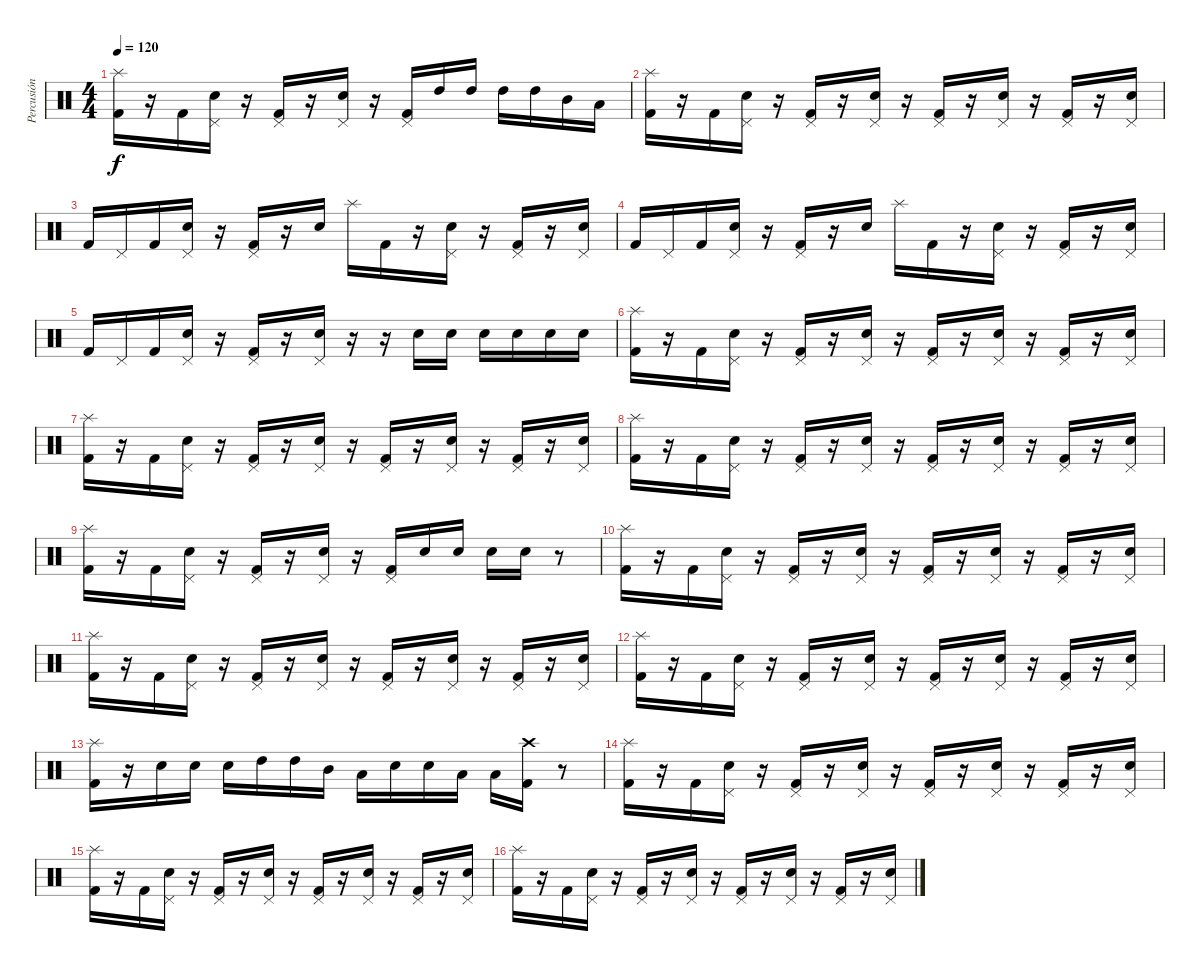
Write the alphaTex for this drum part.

\track ("Percusión" "Percusión") {instrument percussion}
\staff {score}
\articulation defaults
\ts (4 4)
\tempo 120
\clef neutral
\ks c
("Splash (hit)" "Kick (hit) 2").16{dy f} r.16 "Kick (hit) 2".16 ("Pedal Hi-Hat (hit)" "Snare (hit) 2").16 r.16 ("Pedal Hi-Hat (hit)" "Kick (hit) 2").16 r.16 ("Pedal Hi-Hat (hit)" "Snare (hit) 2").16 r.16 ("Pedal Hi-Hat (hit)" "Kick (hit) 2").16 "High Tom (hit)".16 "High Tom (hit)".16 "High Tom (hit)".16 "High Tom (hit)".16 "Mid Tom (hit)".16 "Low Tom (hit)".16 |
("Splash (hit)" "Kick (hit) 2").16 r.16 "Kick (hit) 2".16 ("Pedal Hi-Hat (hit)" "Snare (hit) 2").16 r.16 ("Pedal Hi-Hat (hit)" "Kick (hit) 2").16 r.16 ("Pedal Hi-Hat (hit)" "Snare (hit) 2").16 r.16 ("Pedal Hi-Hat (hit)" "Kick (hit) 2").16 r.16 ("Pedal Hi-Hat (hit)" "Snare (hit) 2").16 r.16 ("Pedal Hi-Hat (hit)" "Kick (hit) 2").16 r.16 ("Pedal Hi-Hat (hit)" "Snare (hit) 2").16 |
"Kick (hit) 2".16 "Pedal Hi-Hat (hit)".16 "Kick (hit) 2".16 ("Pedal Hi-Hat (hit)" "Snare (hit) 2").16 r.16 ("Pedal Hi-Hat (hit)" "Kick (hit) 2").16 r.16 "Snare (hit) 2".16 "Splash (hit)".16 "Kick (hit) 2".16 r.16 ("Pedal Hi-Hat (hit)" "Snare (hit) 2").16 r.16 ("Pedal Hi-Hat (hit)" "Kick (hit) 2").16 r.16 ("Pedal Hi-Hat (hit)" "Snare (hit) 2").16 |
"Kick (hit) 2".16 "Pedal Hi-Hat (hit)".16 "Kick (hit) 2".16 ("Pedal Hi-Hat (hit)" "Snare (hit) 2").16 r.16 ("Pedal Hi-Hat (hit)" "Kick (hit) 2").16 r.16 "Snare (hit) 2".16 "Splash (hit)".16 "Kick (hit) 2".16 r.16 ("Pedal Hi-Hat (hit)" "Snare (hit) 2").16 r.16 ("Pedal Hi-Hat (hit)" "Kick (hit) 2").16 r.16 ("Pedal Hi-Hat (hit)" "Snare (hit) 2").16 |
"Kick (hit) 2".16 "Pedal Hi-Hat (hit)".16 "Kick (hit) 2".16 ("Pedal Hi-Hat (hit)" "Snare (hit) 2").16 r.16 ("Pedal Hi-Hat (hit)" "Kick (hit) 2").16 r.16 ("Pedal Hi-Hat (hit)" "Snare (hit) 2").16 r.16 r.16 "Snare (hit) 2".16 "Snare (hit) 2".16 "Snare (hit) 2".16 "Snare (hit) 2".16 "Snare (hit) 2".16 "Snare (hit) 2".16 |
("Splash (hit)" "Kick (hit) 2").16 r.16 "Kick (hit) 2".16 ("Pedal Hi-Hat (hit)" "Snare (hit) 2").16 r.16 ("Pedal Hi-Hat (hit)" "Kick (hit) 2").16 r.16 ("Pedal Hi-Hat (hit)" "Snare (hit) 2").16 r.16 ("Pedal Hi-Hat (hit)" "Kick (hit) 2").16 r.16 ("Pedal Hi-Hat (hit)" "Snare (hit) 2").16 r.16 ("Pedal Hi-Hat (hit)" "Kick (hit) 2").16 r.16 ("Pedal Hi-Hat (hit)" "Snare (hit) 2").16 |
("Splash (hit)" "Kick (hit) 2").16 r.16 "Kick (hit) 2".16 ("Pedal Hi-Hat (hit)" "Snare (hit) 2").16 r.16 ("Pedal Hi-Hat (hit)" "Kick (hit) 2").16 r.16 ("Pedal Hi-Hat (hit)" "Snare (hit) 2").16 r.16 ("Pedal Hi-Hat (hit)" "Kick (hit) 2").16 r.16 ("Pedal Hi-Hat (hit)" "Snare (hit) 2").16 r.16 ("Pedal Hi-Hat (hit)" "Kick (hit) 2").16 r.16 ("Pedal Hi-Hat (hit)" "Snare (hit) 2").16 |
("Splash (hit)" "Kick (hit) 2").16 r.16 "Kick (hit) 2".16 ("Pedal Hi-Hat (hit)" "Snare (hit) 2").16 r.16 ("Pedal Hi-Hat (hit)" "Kick (hit) 2").16 r.16 ("Pedal Hi-Hat (hit)" "Snare (hit) 2").16 r.16 ("Pedal Hi-Hat (hit)" "Kick (hit) 2").16 r.16 ("Pedal Hi-Hat (hit)" "Snare (hit) 2").16 r.16 ("Pedal Hi-Hat (hit)" "Kick (hit) 2").16 r.16 ("Pedal Hi-Hat (hit)" "Snare (hit) 2").16 |
("Splash (hit)" "Kick (hit) 2").16 r.16 "Kick (hit) 2".16 ("Pedal Hi-Hat (hit)" "Snare (hit) 2").16 r.16 ("Pedal Hi-Hat (hit)" "Kick (hit) 2").16 r.16 ("Pedal Hi-Hat (hit)" "Snare (hit) 2").16 r.16 ("Pedal Hi-Hat (hit)" "Kick (hit) 2").16 "Snare (hit) 2".16 "Snare (hit) 2".16 "Snare (hit) 2".16 "Snare (hit) 2".16 r.8 |
("Splash (hit)" "Kick (hit) 2").16 r.16 "Kick (hit) 2".16 ("Pedal Hi-Hat (hit)" "Snare (hit) 2").16 r.16 ("Pedal Hi-Hat (hit)" "Kick (hit) 2").16 r.16 ("Pedal Hi-Hat (hit)" "Snare (hit) 2").16 r.16 ("Pedal Hi-Hat (hit)" "Kick (hit) 2").16 r.16 ("Pedal Hi-Hat (hit)" "Snare (hit) 2").16 r.16 ("Pedal Hi-Hat (hit)" "Kick (hit) 2").16 r.16 ("Pedal Hi-Hat (hit)" "Snare (hit) 2").16 |
("Splash (hit)" "Kick (hit) 2").16 r.16 "Kick (hit) 2".16 ("Pedal Hi-Hat (hit)" "Snare (hit) 2").16 r.16 ("Pedal Hi-Hat (hit)" "Kick (hit) 2").16 r.16 ("Pedal Hi-Hat (hit)" "Snare (hit) 2").16 r.16 ("Pedal Hi-Hat (hit)" "Kick (hit) 2").16 r.16 ("Pedal Hi-Hat (hit)" "Snare (hit) 2").16 r.16 ("Pedal Hi-Hat (hit)" "Kick (hit) 2").16 r.16 ("Pedal Hi-Hat (hit)" "Snare (hit) 2").16 |
("Splash (hit)" "Kick (hit) 2").16 r.16 "Kick (hit) 2".16 ("Pedal Hi-Hat (hit)" "Snare (hit) 2").16 r.16 ("Pedal Hi-Hat (hit)" "Kick (hit) 2").16 r.16 ("Pedal Hi-Hat (hit)" "Snare (hit) 2").16 r.16 ("Pedal Hi-Hat (hit)" "Kick (hit) 2").16 r.16 ("Pedal Hi-Hat (hit)" "Snare (hit) 2").16 r.16 ("Pedal Hi-Hat (hit)" "Kick (hit) 2").16 r.16 ("Pedal Hi-Hat (hit)" "Snare (hit) 2").16 |
("Splash (hit)" "Kick (hit) 2").16 r.16 "Snare (hit) 2".16 "Snare (hit) 2".16 "Snare (hit) 2".16 "High Tom (hit)".16 "High Tom (hit)".16 "Mid Tom (hit)".16 "Low Tom (hit)".16 "Snare (hit) 2".16 "Snare (hit) 2".16 "Low Tom (hit)".16 "Low Tom (hit)".16 ("Crash high (hit)" "Kick (hit) 2").16 r.8 |
("Splash (hit)" "Kick (hit) 2").16 r.16 "Kick (hit) 2".16 ("Pedal Hi-Hat (hit)" "Snare (hit) 2").16 r.16 ("Pedal Hi-Hat (hit)" "Kick (hit) 2").16 r.16 ("Pedal Hi-Hat (hit)" "Snare (hit) 2").16 r.16 ("Pedal Hi-Hat (hit)" "Kick (hit) 2").16 r.16 ("Pedal Hi-Hat (hit)" "Snare (hit) 2").16 r.16 ("Pedal Hi-Hat (hit)" "Kick (hit) 2").16 r.16 ("Pedal Hi-Hat (hit)" "Snare (hit) 2").16 |
("Splash (hit)" "Kick (hit) 2").16 r.16 "Kick (hit) 2".16 ("Pedal Hi-Hat (hit)" "Snare (hit) 2").16 r.16 ("Pedal Hi-Hat (hit)" "Kick (hit) 2").16 r.16 ("Pedal Hi-Hat (hit)" "Snare (hit) 2").16 r.16 ("Pedal Hi-Hat (hit)" "Kick (hit) 2").16 r.16 ("Pedal Hi-Hat (hit)" "Snare (hit) 2").16 r.16 ("Pedal Hi-Hat (hit)" "Kick (hit) 2").16 r.16 ("Pedal Hi-Hat (hit)" "Snare (hit) 2").16 |
("Splash (hit)" "Kick (hit) 2").16 r.16 "Kick (hit) 2".16 ("Pedal Hi-Hat (hit)" "Snare (hit) 2").16 r.16 ("Pedal Hi-Hat (hit)" "Kick (hit) 2").16 r.16 ("Pedal Hi-Hat (hit)" "Snare (hit) 2").16 r.16 ("Pedal Hi-Hat (hit)" "Kick (hit) 2").16 r.16 ("Pedal Hi-Hat (hit)" "Snare (hit) 2").16 r.16 ("Pedal Hi-Hat (hit)" "Kick (hit) 2").16 r.16 ("Pedal Hi-Hat (hit)" "Snare (hit) 2").16
